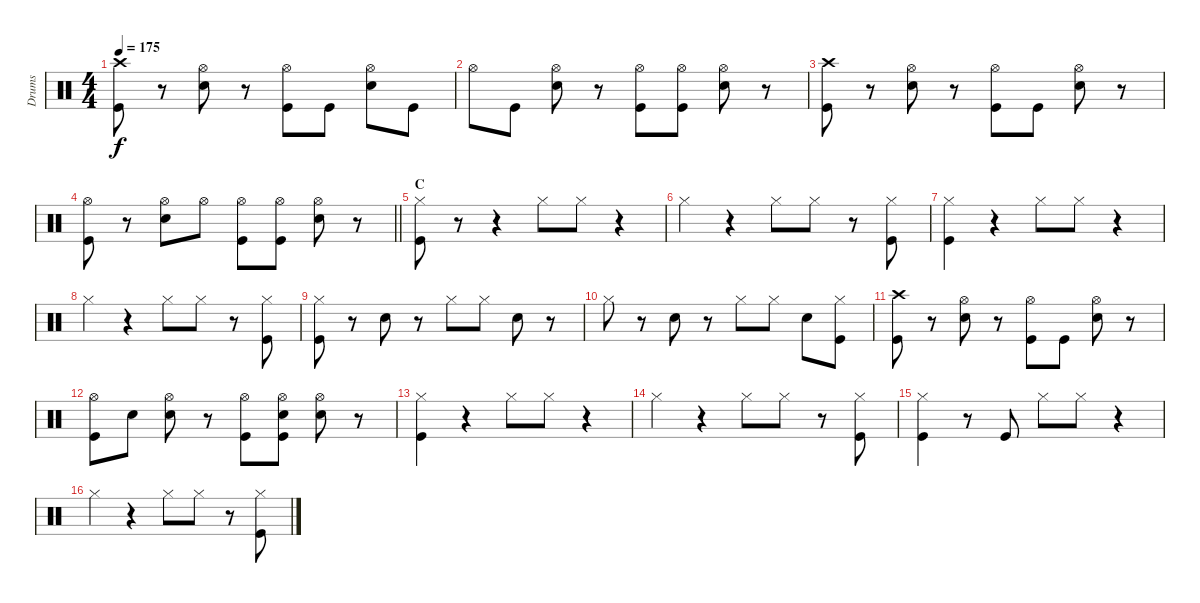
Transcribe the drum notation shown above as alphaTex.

\track ("Drums" "Drums") {instrument percussion}
\staff {score}
\articulation defaults
\ts (4 4)
\tempo 175
\clef neutral
\ks c
("Crash high (hit)" "Kick (hit)").8{dy f} r.8 ("Hi-Hat (open)" "Snare (hit) 2").8 r.8 ("Hi-Hat (open)" "Kick (hit)").8 "Kick (hit)".8 ("Hi-Hat (open)" "Snare (hit) 2").8 "Kick (hit)".8 |
"Hi-Hat (open)".8 "Kick (hit)".8 ("Hi-Hat (open)" "Snare (hit) 2").8 r.8 ("Hi-Hat (open)" "Kick (hit)").8 ("Hi-Hat (open)" "Kick (hit)").8 ("Hi-Hat (open)" "Snare (hit) 2").8 r.8 |
("Crash high (hit)" "Kick (hit)").8 r.8 ("Hi-Hat (open)" "Snare (hit) 2").8 r.8 ("Hi-Hat (open)" "Kick (hit)").8 "Kick (hit)".8 ("Hi-Hat (open)" "Snare (hit) 2").8 r.8 |
\barLineRight lightlight
("Hi-Hat (open)" "Kick (hit)").8 r.8 ("Hi-Hat (open)" "Snare (hit) 2").8 "Hi-Hat (open)".8 ("Hi-Hat (open)" "Kick (hit)").8 ("Hi-Hat (open)" "Kick (hit)").8 ("Hi-Hat (open)" "Snare (hit) 2").8 r.8 |
\section ("" "C")
("Hi-Hat (closed)" "Kick (hit)").8 r.8 r.4 "Hi-Hat (closed)".8 "Hi-Hat (closed)".8 r.4 |
"Hi-Hat (closed)".4 r.4 "Hi-Hat (closed)".8 "Hi-Hat (closed)".8 r.8 ("Hi-Hat (closed)" "Kick (hit)").8 |
("Hi-Hat (closed)" "Kick (hit)").4 r.4 "Hi-Hat (closed)".8 "Hi-Hat (closed)".8 r.4 |
"Hi-Hat (closed)".4 r.4 "Hi-Hat (closed)".8 "Hi-Hat (closed)".8 r.8 ("Hi-Hat (closed)" "Kick (hit)").8 |
("Hi-Hat (closed)" "Kick (hit)").8 r.8 "Snare (hit) 2".8 r.8 "Hi-Hat (closed)".8 "Hi-Hat (closed)".8 "Snare (hit) 2".8 r.8 |
"Hi-Hat (closed)".8 r.8 "Snare (hit) 2".8 r.8 "Hi-Hat (closed)".8 "Hi-Hat (closed)".8 "Snare (hit) 2".8 ("Hi-Hat (closed)" "Kick (hit)").8 |
("Crash high (hit)" "Kick (hit)").8 r.8 ("Hi-Hat (open)" "Snare (hit) 2").8 r.8 ("Hi-Hat (open)" "Kick (hit)").8 "Kick (hit)".8 ("Hi-Hat (open)" "Snare (hit) 2").8 r.8 |
("Hi-Hat (open)" "Kick (hit)").8 "Snare (hit) 2".8 ("Hi-Hat (open)" "Snare (hit) 2").8 r.8 ("Hi-Hat (open)" "Kick (hit)").8 ("Hi-Hat (open)" "Snare (hit) 2" "Kick (hit)").8 ("Hi-Hat (open)" "Snare (hit) 2").8 r.8 |
("Hi-Hat (closed)" "Kick (hit)").4 r.4 "Hi-Hat (closed)".8 "Hi-Hat (closed)".8 r.4 |
"Hi-Hat (closed)".4 r.4 "Hi-Hat (closed)".8 "Hi-Hat (closed)".8 r.8 ("Hi-Hat (closed)" "Kick (hit)").8 |
("Hi-Hat (closed)" "Kick (hit)").4 r.8 "Kick (hit)".8 "Hi-Hat (closed)".8 "Hi-Hat (closed)".8 r.4 |
"Hi-Hat (closed)".4 r.4 "Hi-Hat (closed)".8 "Hi-Hat (closed)".8 r.8 ("Hi-Hat (closed)" "Kick (hit)").8
